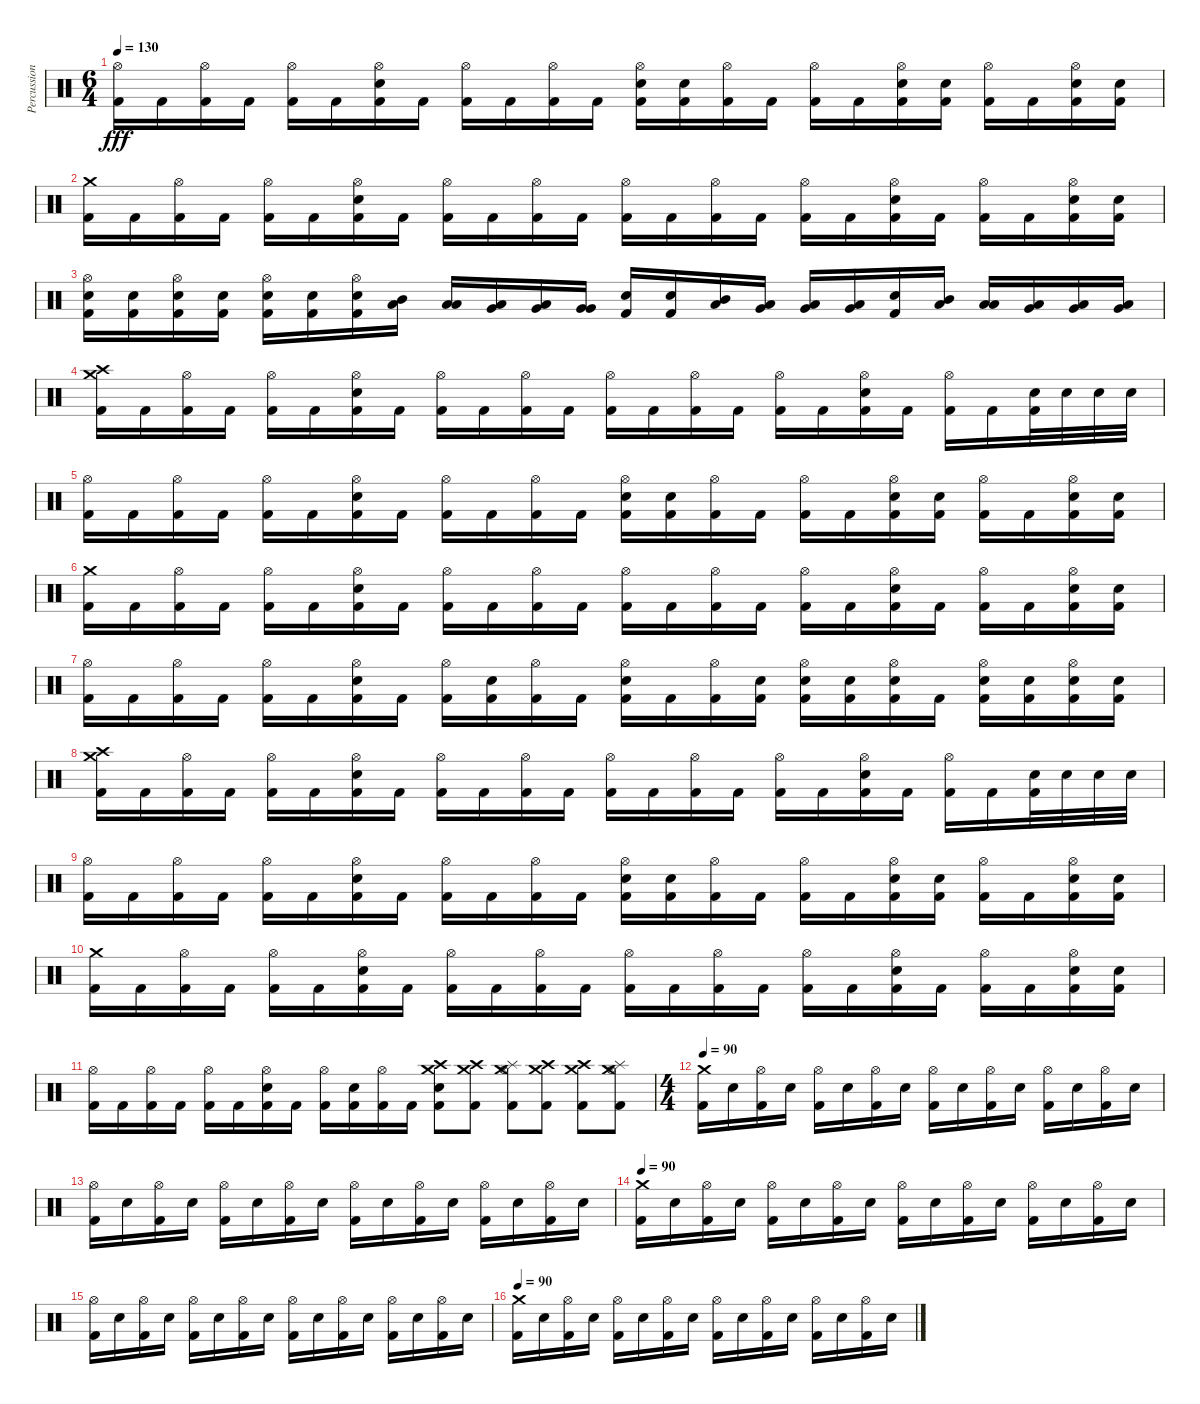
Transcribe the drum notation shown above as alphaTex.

\track ("Percussion" "Percussion") {instrument percussion}
\staff
\articulation defaults
\ts (6 4)
\tempo 130
\clef neutral
\ks c
("Hi-Hat (open)" "Kick (hit) 2").16{dy fff} "Kick (hit) 2".16 ("Hi-Hat (open)" "Kick (hit) 2").16 "Kick (hit) 2".16 ("Hi-Hat (open)" "Kick (hit) 2").16 "Kick (hit) 2".16 ("Hi-Hat (open)" "Snare (hit) 2" "Kick (hit) 2").16 "Kick (hit) 2".16 ("Hi-Hat (open)" "Kick (hit) 2").16 "Kick (hit) 2".16 ("Hi-Hat (open)" "Kick (hit) 2").16 "Kick (hit) 2".16 ("Hi-Hat (open)" "Snare (hit) 2" "Kick (hit) 2").16 ("Snare (hit) 2" "Kick (hit) 2").16 ("Hi-Hat (open)" "Kick (hit) 2").16 "Kick (hit) 2".16 ("Hi-Hat (open)" "Kick (hit) 2").16 "Kick (hit) 2".16 ("Hi-Hat (open)" "Snare (hit) 2" "Kick (hit) 2").16 ("Snare (hit) 2" "Kick (hit) 2").16 ("Hi-Hat (open)" "Kick (hit) 2").16 "Kick (hit) 2".16 ("Hi-Hat (open)" "Snare (hit) 2" "Kick (hit) 2").16 ("Snare (hit) 2" "Kick (hit) 2").16 |
("Crash medium (hit)" "Kick (hit) 2").16 "Kick (hit) 2".16 ("Hi-Hat (open)" "Kick (hit) 2").16 "Kick (hit) 2".16 ("Hi-Hat (open)" "Kick (hit) 2").16 "Kick (hit) 2".16 ("Hi-Hat (open)" "Snare (hit) 2" "Kick (hit) 2").16 "Kick (hit) 2".16 ("Hi-Hat (open)" "Kick (hit) 2").16 "Kick (hit) 2".16 ("Hi-Hat (open)" "Kick (hit) 2").16 "Kick (hit) 2".16 ("Hi-Hat (open)" "Kick (hit) 2").16 "Kick (hit) 2".16 ("Hi-Hat (open)" "Kick (hit) 2").16 "Kick (hit) 2".16 ("Hi-Hat (open)" "Kick (hit) 2").16 "Kick (hit) 2".16 ("Hi-Hat (open)" "Snare (hit) 2" "Kick (hit) 2").16 "Kick (hit) 2".16 ("Hi-Hat (open)" "Kick (hit) 2").16 "Kick (hit) 2".16 ("Hi-Hat (open)" "Snare (hit) 2" "Kick (hit) 2").16 ("Snare (hit) 2" "Kick (hit) 2").16 |
("Hi-Hat (open)" "Snare (hit) 2" "Kick (hit) 2").16 ("Snare (hit) 2" "Kick (hit) 2").16 ("Hi-Hat (open)" "Snare (hit) 2" "Kick (hit) 2").16 ("Snare (hit) 2" "Kick (hit) 2").16 ("Hi-Hat (open)" "Snare (hit) 2" "Kick (hit) 2").16 ("Snare (hit) 2" "Kick (hit) 2").16 ("Hi-Hat (open)" "Snare (hit) 2" "Kick (hit) 2").16 ("Mid Tom (hit)" "Low Tom (hit)").16 ("Low Tom (hit)" "Low Tom (hit)").16 ("Low Tom (hit)" "Very Low Tom (hit)").16 ("Low Tom (hit)" "Very Low Tom (hit)").16 ("Very Low Tom (hit)" "Very Low Tom (hit)").16 ("Snare (hit) 2" "Kick (hit) 2").16 ("Snare (hit) 2" "Kick (hit) 2").16 ("Mid Tom (hit)" "Low Tom (hit)").16 ("Low Tom (hit)" "Very Low Tom (hit)").16 ("Low Tom (hit)" "Very Low Tom (hit)").16 ("Very Low Tom (hit)" "Low Floor Tom (hit)").16 ("Snare (hit) 2" "Kick (hit) 2").16 ("Mid Tom (hit)" "Low Tom (hit)").16 ("Low Tom (hit)" "Low Tom (hit)").16 ("Low Tom (hit)" "Very Low Tom (hit)").16 ("Low Tom (hit)" "Very Low Tom (hit)").16 ("Very Low Tom (hit)" "Low Floor Tom (hit)").16 |
("Crash high (hit)" "Crash medium (hit)" "Kick (hit) 2").16 "Kick (hit) 2".16 ("Hi-Hat (open)" "Kick (hit) 2").16 "Kick (hit) 2".16 ("Hi-Hat (open)" "Kick (hit) 2").16 "Kick (hit) 2".16 ("Hi-Hat (open)" "Snare (hit) 2" "Kick (hit) 2").16 "Kick (hit) 2".16 ("Hi-Hat (open)" "Kick (hit) 2").16 "Kick (hit) 2".16 ("Hi-Hat (open)" "Kick (hit) 2").16 "Kick (hit) 2".16 ("Hi-Hat (open)" "Kick (hit) 2").16 "Kick (hit) 2".16 ("Hi-Hat (open)" "Kick (hit) 2").16 "Kick (hit) 2".16 ("Hi-Hat (open)" "Kick (hit) 2").16 "Kick (hit) 2".16 ("Hi-Hat (open)" "Snare (hit) 2" "Kick (hit) 2").16 "Kick (hit) 2".16 ("Hi-Hat (open)" "Kick (hit) 2").16 "Kick (hit) 2".16 ("Snare (hit) 2" "Kick (hit) 2").32 "Snare (hit) 2".32 "Snare (hit) 2".32 "Snare (hit) 2".32 |
("Hi-Hat (open)" "Kick (hit) 2").16 "Kick (hit) 2".16 ("Hi-Hat (open)" "Kick (hit) 2").16 "Kick (hit) 2".16 ("Hi-Hat (open)" "Kick (hit) 2").16 "Kick (hit) 2".16 ("Hi-Hat (open)" "Snare (hit) 2" "Kick (hit) 2").16 "Kick (hit) 2".16 ("Hi-Hat (open)" "Kick (hit) 2").16 "Kick (hit) 2".16 ("Hi-Hat (open)" "Kick (hit) 2").16 "Kick (hit) 2".16 ("Hi-Hat (open)" "Snare (hit) 2" "Kick (hit) 2").16 ("Snare (hit) 2" "Kick (hit) 2").16 ("Hi-Hat (open)" "Kick (hit) 2").16 "Kick (hit) 2".16 ("Hi-Hat (open)" "Kick (hit) 2").16 "Kick (hit) 2".16 ("Hi-Hat (open)" "Snare (hit) 2" "Kick (hit) 2").16 ("Snare (hit) 2" "Kick (hit) 2").16 ("Hi-Hat (open)" "Kick (hit) 2").16 "Kick (hit) 2".16 ("Hi-Hat (open)" "Snare (hit) 2" "Kick (hit) 2").16 ("Snare (hit) 2" "Kick (hit) 2").16 |
("Crash medium (hit)" "Kick (hit) 2").16 "Kick (hit) 2".16 ("Hi-Hat (open)" "Kick (hit) 2").16 "Kick (hit) 2".16 ("Hi-Hat (open)" "Kick (hit) 2").16 "Kick (hit) 2".16 ("Hi-Hat (open)" "Snare (hit) 2" "Kick (hit) 2").16 "Kick (hit) 2".16 ("Hi-Hat (open)" "Kick (hit) 2").16 "Kick (hit) 2".16 ("Hi-Hat (open)" "Kick (hit) 2").16 "Kick (hit) 2".16 ("Hi-Hat (open)" "Kick (hit) 2").16 "Kick (hit) 2".16 ("Hi-Hat (open)" "Kick (hit) 2").16 "Kick (hit) 2".16 ("Hi-Hat (open)" "Kick (hit) 2").16 "Kick (hit) 2".16 ("Hi-Hat (open)" "Snare (hit) 2" "Kick (hit) 2").16 "Kick (hit) 2".16 ("Hi-Hat (open)" "Kick (hit) 2").16 "Kick (hit) 2".16 ("Hi-Hat (open)" "Snare (hit) 2" "Kick (hit) 2").16 ("Snare (hit) 2" "Kick (hit) 2").16 |
("Hi-Hat (open)" "Kick (hit) 2").16 "Kick (hit) 2".16 ("Hi-Hat (open)" "Kick (hit) 2").16 "Kick (hit) 2".16 ("Hi-Hat (open)" "Kick (hit) 2").16 "Kick (hit) 2".16 ("Hi-Hat (open)" "Snare (hit) 2" "Kick (hit) 2").16 "Kick (hit) 2".16 ("Hi-Hat (open)" "Kick (hit) 2").16 ("Snare (hit) 2" "Kick (hit) 2").16 ("Hi-Hat (open)" "Kick (hit) 2").16 "Kick (hit) 2".16 ("Hi-Hat (open)" "Snare (hit) 2" "Kick (hit) 2").16 "Kick (hit) 2".16 ("Hi-Hat (open)" "Kick (hit) 2").16 ("Snare (hit) 2" "Kick (hit) 2").16 ("Hi-Hat (open)" "Snare (hit) 2" "Kick (hit) 2").16 ("Snare (hit) 2" "Kick (hit) 2").16 ("Hi-Hat (open)" "Snare (hit) 2" "Kick (hit) 2").16 "Kick (hit) 2".16 ("Hi-Hat (open)" "Snare (hit) 2" "Kick (hit) 2").16 ("Snare (hit) 2" "Kick (hit) 2").16 ("Hi-Hat (open)" "Snare (hit) 2" "Kick (hit) 2").16 ("Snare (hit) 2" "Kick (hit) 2").16 |
("Crash high (hit)" "Crash medium (hit)" "Kick (hit) 2").16 "Kick (hit) 2".16 ("Hi-Hat (open)" "Kick (hit) 2").16 "Kick (hit) 2".16 ("Hi-Hat (open)" "Kick (hit) 2").16 "Kick (hit) 2".16 ("Hi-Hat (open)" "Snare (hit) 2" "Kick (hit) 2").16 "Kick (hit) 2".16 ("Hi-Hat (open)" "Kick (hit) 2").16 "Kick (hit) 2".16 ("Hi-Hat (open)" "Kick (hit) 2").16 "Kick (hit) 2".16 ("Hi-Hat (open)" "Kick (hit) 2").16 "Kick (hit) 2".16 ("Hi-Hat (open)" "Kick (hit) 2").16 "Kick (hit) 2".16 ("Hi-Hat (open)" "Kick (hit) 2").16 "Kick (hit) 2".16 ("Hi-Hat (open)" "Snare (hit) 2" "Kick (hit) 2").16 "Kick (hit) 2".16 ("Hi-Hat (open)" "Kick (hit) 2").16 "Kick (hit) 2".16 ("Snare (hit) 2" "Kick (hit) 2").32 "Snare (hit) 2".32 "Snare (hit) 2".32 "Snare (hit) 2".32 |
("Hi-Hat (open)" "Kick (hit) 2").16 "Kick (hit) 2".16 ("Hi-Hat (open)" "Kick (hit) 2").16 "Kick (hit) 2".16 ("Hi-Hat (open)" "Kick (hit) 2").16 "Kick (hit) 2".16 ("Hi-Hat (open)" "Snare (hit) 2" "Kick (hit) 2").16 "Kick (hit) 2".16 ("Hi-Hat (open)" "Kick (hit) 2").16 "Kick (hit) 2".16 ("Hi-Hat (open)" "Kick (hit) 2").16 "Kick (hit) 2".16 ("Hi-Hat (open)" "Snare (hit) 2" "Kick (hit) 2").16 ("Snare (hit) 2" "Kick (hit) 2").16 ("Hi-Hat (open)" "Kick (hit) 2").16 "Kick (hit) 2".16 ("Hi-Hat (open)" "Kick (hit) 2").16 "Kick (hit) 2".16 ("Hi-Hat (open)" "Snare (hit) 2" "Kick (hit) 2").16 ("Snare (hit) 2" "Kick (hit) 2").16 ("Hi-Hat (open)" "Kick (hit) 2").16 "Kick (hit) 2".16 ("Hi-Hat (open)" "Snare (hit) 2" "Kick (hit) 2").16 ("Snare (hit) 2" "Kick (hit) 2").16 |
("Crash medium (hit)" "Kick (hit) 2").16 "Kick (hit) 2".16 ("Hi-Hat (open)" "Kick (hit) 2").16 "Kick (hit) 2".16 ("Hi-Hat (open)" "Kick (hit) 2").16 "Kick (hit) 2".16 ("Hi-Hat (open)" "Snare (hit) 2" "Kick (hit) 2").16 "Kick (hit) 2".16 ("Hi-Hat (open)" "Kick (hit) 2").16 "Kick (hit) 2".16 ("Hi-Hat (open)" "Kick (hit) 2").16 "Kick (hit) 2".16 ("Hi-Hat (open)" "Kick (hit) 2").16 "Kick (hit) 2".16 ("Hi-Hat (open)" "Kick (hit) 2").16 "Kick (hit) 2".16 ("Hi-Hat (open)" "Kick (hit) 2").16 "Kick (hit) 2".16 ("Hi-Hat (open)" "Snare (hit) 2" "Kick (hit) 2").16 "Kick (hit) 2".16 ("Hi-Hat (open)" "Kick (hit) 2").16 "Kick (hit) 2".16 ("Hi-Hat (open)" "Snare (hit) 2" "Kick (hit) 2").16 ("Snare (hit) 2" "Kick (hit) 2").16 |
("Hi-Hat (open)" "Kick (hit) 2").16 "Kick (hit) 2".16 ("Hi-Hat (open)" "Kick (hit) 2").16 "Kick (hit) 2".16 ("Hi-Hat (open)" "Kick (hit) 2").16 "Kick (hit) 2".16 ("Hi-Hat (open)" "Snare (hit) 2" "Kick (hit) 2").16 "Kick (hit) 2".16 ("Hi-Hat (open)" "Kick (hit) 2").16 ("Snare (hit) 2" "Kick (hit) 2").16 ("Hi-Hat (open)" "Kick (hit) 2").16 "Kick (hit) 2".16 ("Crash high (hit)" "Crash medium (hit)" "Snare (hit) 2" "Kick (hit) 2").8 ("Crash high (hit)" "Crash medium (hit)" "Kick (hit) 2").8 ("Splash (hit)" "Hi-Hat (open)" "Crash medium (hit)" "Kick (hit) 2").8 ("Crash high (hit)" "Crash medium (hit)" "Kick (hit) 2").8 ("Crash high (hit)" "Crash medium (hit)" "Kick (hit) 2").8 ("Splash (hit)" "Hi-Hat (open)" "Crash medium (hit)" "Kick (hit) 2").8 |
\ts (4 4)
\tempo 90
("Crash medium (hit)" "Kick (hit) 2").16 "Snare (hit) 2".16 ("Hi-Hat (open)" "Kick (hit) 2").16 "Snare (hit) 2".16 ("Hi-Hat (open)" "Kick (hit) 2").16 "Snare (hit) 2".16 ("Hi-Hat (open)" "Kick (hit) 2").16 "Snare (hit) 2".16 ("Hi-Hat (open)" "Kick (hit) 2").16 "Snare (hit) 2".16 ("Hi-Hat (open)" "Kick (hit) 2").16 "Snare (hit) 2".16 ("Hi-Hat (open)" "Kick (hit) 2").16 "Snare (hit) 2".16 ("Hi-Hat (open)" "Kick (hit) 2").16 "Snare (hit) 2".16 |
("Hi-Hat (open)" "Kick (hit) 2").16 "Snare (hit) 2".16 ("Hi-Hat (open)" "Kick (hit) 2").16 "Snare (hit) 2".16 ("Hi-Hat (open)" "Kick (hit) 2").16 "Snare (hit) 2".16 ("Hi-Hat (open)" "Kick (hit) 2").16 "Snare (hit) 2".16 ("Hi-Hat (open)" "Kick (hit) 2").16 "Snare (hit) 2".16 ("Hi-Hat (open)" "Kick (hit) 2").16 "Snare (hit) 2".16 ("Hi-Hat (open)" "Kick (hit) 2").16 "Snare (hit) 2".16 ("Hi-Hat (open)" "Kick (hit) 2").16 "Snare (hit) 2".16 |
\tempo 90
("Crash medium (hit)" "Kick (hit) 2").16 "Snare (hit) 2".16 ("Hi-Hat (open)" "Kick (hit) 2").16 "Snare (hit) 2".16 ("Hi-Hat (open)" "Kick (hit) 2").16 "Snare (hit) 2".16 ("Hi-Hat (open)" "Kick (hit) 2").16 "Snare (hit) 2".16 ("Hi-Hat (open)" "Kick (hit) 2").16 "Snare (hit) 2".16 ("Hi-Hat (open)" "Kick (hit) 2").16 "Snare (hit) 2".16 ("Hi-Hat (open)" "Kick (hit) 2").16 "Snare (hit) 2".16 ("Hi-Hat (open)" "Kick (hit) 2").16 "Snare (hit) 2".16 |
("Hi-Hat (open)" "Kick (hit) 2").16 "Snare (hit) 2".16 ("Hi-Hat (open)" "Kick (hit) 2").16 "Snare (hit) 2".16 ("Hi-Hat (open)" "Kick (hit) 2").16 "Snare (hit) 2".16 ("Hi-Hat (open)" "Kick (hit) 2").16 "Snare (hit) 2".16 ("Hi-Hat (open)" "Kick (hit) 2").16 "Snare (hit) 2".16 ("Hi-Hat (open)" "Kick (hit) 2").16 "Snare (hit) 2".16 ("Hi-Hat (open)" "Kick (hit) 2").16 "Snare (hit) 2".16 ("Hi-Hat (open)" "Kick (hit) 2").16 "Snare (hit) 2".16 |
\tempo 90
("Crash medium (hit)" "Kick (hit) 2").16 "Snare (hit) 2".16 ("Hi-Hat (open)" "Kick (hit) 2").16 "Snare (hit) 2".16 ("Hi-Hat (open)" "Kick (hit) 2").16 "Snare (hit) 2".16 ("Hi-Hat (open)" "Kick (hit) 2").16 "Snare (hit) 2".16 ("Hi-Hat (open)" "Kick (hit) 2").16 "Snare (hit) 2".16 ("Hi-Hat (open)" "Kick (hit) 2").16 "Snare (hit) 2".16 ("Hi-Hat (open)" "Kick (hit) 2").16 "Snare (hit) 2".16 ("Hi-Hat (open)" "Kick (hit) 2").16 "Snare (hit) 2".16
